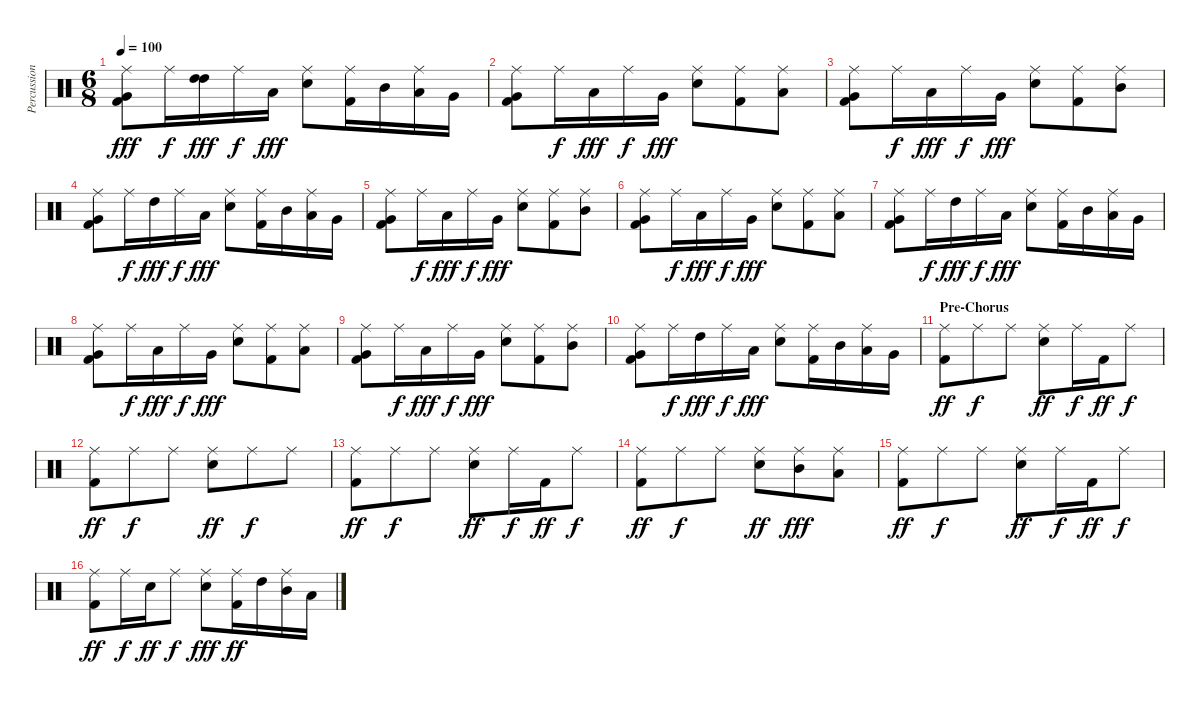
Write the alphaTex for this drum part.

\track ("Percussion" "Percussion") {instrument percussion}
\staff {score}
\articulation defaults
\ts (6 8)
\tempo 100
\clef neutral
\ks c
("Ride (middle)" "Very Low Tom (hit)" "Kick (hit) 2").8{dy fff} "Ride (middle)".16{dy f} ("High Tom (hit)" "High Tom (hit)").16{dy fff} "Ride (middle)".16{dy f} "Low Tom (hit)".16{dy fff} ("Ride (middle)" "Electric Snare (hit)").8 ("Ride (middle)" "Kick (hit) 2").16 "Mid Tom (hit)".16 ("Ride (middle)" "Low Tom (hit)").16 "Very Low Tom (hit)".16 |
("Ride (middle)" "Very Low Tom (hit)" "Kick (hit) 2").8 "Ride (middle)".16{dy f} "Low Tom (hit)".16{dy fff} "Ride (middle)".16{dy f} "Very Low Tom (hit)".16{dy fff} ("Ride (middle)" "Electric Snare (hit)").8 ("Ride (middle)" "Kick (hit) 2").8 ("Ride (middle)" "Low Tom (hit)").8 |
("Ride (middle)" "Very Low Tom (hit)" "Kick (hit) 2").8 "Ride (middle)".16{dy f} "Low Tom (hit)".16{dy fff} "Ride (middle)".16{dy f} "Very Low Tom (hit)".16{dy fff} ("Ride (middle)" "Electric Snare (hit)").8 ("Ride (middle)" "Kick (hit) 2").8 ("Ride (middle)" "Mid Tom (hit)").8 |
("Ride (middle)" "Kick (hit) 2" "Very Low Tom (hit)").8 "Ride (middle)".16{dy f} "High Tom (hit)".16{dy fff} "Ride (middle)".16{dy f} "Low Tom (hit)".16{dy fff} ("Ride (middle)" "Electric Snare (hit)").8 ("Ride (middle)" "Kick (hit) 2").16 "Mid Tom (hit)".16 ("Ride (middle)" "Low Tom (hit)").16 "Very Low Tom (hit)".16 |
("Ride (middle)" "Very Low Tom (hit)" "Kick (hit) 2").8 "Ride (middle)".16{dy f} "Low Tom (hit)".16{dy fff} "Ride (middle)".16{dy f} "Very Low Tom (hit)".16{dy fff} ("Ride (middle)" "Electric Snare (hit)").8 ("Ride (middle)" "Kick (hit) 2").8 ("Ride (middle)" "Mid Tom (hit)").8 |
("Ride (middle)" "Very Low Tom (hit)" "Kick (hit) 2").8 "Ride (middle)".16{dy f} "Low Tom (hit)".16{dy fff} "Ride (middle)".16{dy f} "Very Low Tom (hit)".16{dy fff} ("Ride (middle)" "Electric Snare (hit)").8 ("Ride (middle)" "Kick (hit) 2").8 ("Ride (middle)" "Low Tom (hit)").8 |
("Ride (middle)" "Kick (hit) 2" "Very Low Tom (hit)").8 "Ride (middle)".16{dy f} "High Tom (hit)".16{dy fff} "Ride (middle)".16{dy f} "Low Tom (hit)".16{dy fff} ("Ride (middle)" "Electric Snare (hit)").8 ("Ride (middle)" "Kick (hit) 2").16 "Mid Tom (hit)".16 ("Ride (middle)" "Low Tom (hit)").16 "Very Low Tom (hit)".16 |
("Ride (middle)" "Very Low Tom (hit)" "Kick (hit) 2").8 "Ride (middle)".16{dy f} "Low Tom (hit)".16{dy fff} "Ride (middle)".16{dy f} "Very Low Tom (hit)".16{dy fff} ("Ride (middle)" "Electric Snare (hit)").8 ("Ride (middle)" "Kick (hit) 2").8 ("Ride (middle)" "Low Tom (hit)").8 |
("Ride (middle)" "Very Low Tom (hit)" "Kick (hit) 2").8 "Ride (middle)".16{dy f} "Low Tom (hit)".16{dy fff} "Ride (middle)".16{dy f} "Very Low Tom (hit)".16{dy fff} ("Ride (middle)" "Electric Snare (hit)").8 ("Ride (middle)" "Kick (hit) 2").8 ("Ride (middle)" "Mid Tom (hit)").8 |
("Ride (middle)" "Kick (hit) 2" "Very Low Tom (hit)").8 "Ride (middle)".16{dy f} "High Tom (hit)".16{dy fff} "Ride (middle)".16{dy f} "Low Tom (hit)".16{dy fff} ("Ride (middle)" "Electric Snare (hit)").8 ("Ride (middle)" "Kick (hit) 2").16 "Mid Tom (hit)".16 ("Low Tom (hit)" "Ride (middle)").16 "Very Low Tom (hit)".16 |
\section ("" "Pre-Chorus")
("Kick (hit) 2" "Ride (middle)").8{dy ff} "Ride (middle)".8{dy f} "Ride (middle)".8 ("Electric Snare (hit)" "Ride (middle)").8{dy ff} "Ride (middle)".16{dy f} "Kick (hit) 2".16{dy ff} "Ride (middle)".8{dy f} |
("Kick (hit) 2" "Ride (middle)").8{dy ff} "Ride (middle)".8{dy f} "Ride (middle)".8 ("Electric Snare (hit)" "Ride (middle)").8{dy ff} "Ride (middle)".8{dy f} "Ride (middle)".8 |
("Ride (middle)" "Kick (hit) 2").8{dy ff} "Ride (middle)".8{dy f} "Ride (middle)".8 ("Ride (middle)" "Electric Snare (hit)").8{dy ff} "Ride (middle)".16{dy f} "Kick (hit) 2".16{dy ff} "Ride (middle)".8{dy f} |
("Ride (middle)" "Kick (hit) 2").8{dy ff} "Ride (middle)".8{dy f} "Ride (middle)".8 ("Ride (middle)" "Electric Snare (hit)").8{dy ff} ("Mid Tom (hit)" "Ride (middle)").8{dy fff} ("Low Tom (hit)" "Ride (middle)").8 |
("Ride (middle)" "Kick (hit) 2").8{dy ff} "Ride (middle)".8{dy f} "Ride (middle)".8 ("Ride (middle)" "Electric Snare (hit)").8{dy ff} "Ride (middle)".16{dy f} "Kick (hit) 2".16{dy ff} "Ride (middle)".8{dy f} |
("Ride (middle)" "Kick (hit) 2").8{dy ff} "Ride (middle)".16{dy f} "Electric Snare (hit)".16{dy ff} "Ride (middle)".8{dy f} ("Ride (middle)" "Electric Snare (hit)").8{dy fff} ("Kick (hit) 2" "Ride (middle)").16{dy ff} "High Tom (hit)".16 ("Mid Tom (hit)" "Ride (middle)").16 "Low Tom (hit)".16
